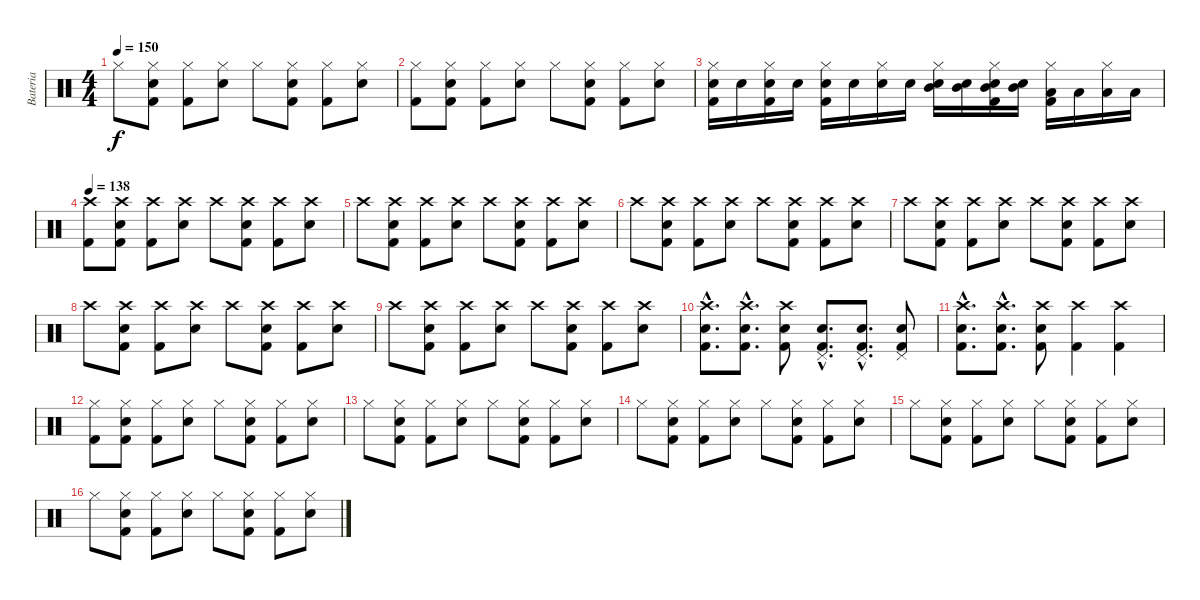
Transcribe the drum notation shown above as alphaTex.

\track ("Bateria" "Bateria") {instrument percussion}
\staff {score}
\articulation defaults
\ts (4 4)
\tempo 150
\clef neutral
\ks c "Hi-Hat (closed)".8{dy f}
("Electric Snare (hit)" "Hi-Hat (closed)" "Kick (hit) 2").8 ("Hi-Hat (closed)" "Kick (hit) 2").8 ("Electric Snare (hit)" "Hi-Hat (closed)").8 "Hi-Hat (closed)".8 ("Electric Snare (hit)" "Hi-Hat (closed)" "Kick (hit) 2").8 ("Hi-Hat (closed)" "Kick (hit) 2").8 ("Electric Snare (hit)" "Hi-Hat (closed)").8 |
("Hi-Hat (closed)" "Kick (hit) 2").8 ("Electric Snare (hit)" "Hi-Hat (closed)" "Kick (hit) 2").8 ("Hi-Hat (closed)" "Kick (hit) 2").8 ("Electric Snare (hit)" "Hi-Hat (closed)").8 "Hi-Hat (closed)".8 ("Electric Snare (hit)" "Hi-Hat (closed)" "Kick (hit) 2").8 ("Hi-Hat (closed)" "Kick (hit) 2").8 ("Electric Snare (hit)" "Hi-Hat (closed)").8 |
("Electric Snare (hit)" "Hi-Hat (closed)" "Kick (hit) 2").16 "Electric Snare (hit)".16 ("Electric Snare (hit)" "Hi-Hat (closed)" "Kick (hit) 2").16 "Electric Snare (hit)".16 ("Electric Snare (hit)" "Hi-Hat (closed)" "Kick (hit) 2").16 "Electric Snare (hit)".16 ("Electric Snare (hit)" "Hi-Hat (closed)").16 "Electric Snare (hit)".16 ("Electric Snare (hit)" "Hi-Hat (closed)" "Mid Tom (hit)").16 ("Electric Snare (hit)" "Mid Tom (hit)").16 ("Electric Snare (hit)" "Hi-Hat (closed)" "Mid Tom (hit)" "Kick (hit) 2").16 ("Electric Snare (hit)" "Mid Tom (hit)").16 ("Low Tom (hit)" "Hi-Hat (closed)" "Kick (hit) 2").16 "Low Tom (hit)".16 ("Low Tom (hit)" "Hi-Hat (closed)").16 "Low Tom (hit)".16 |
\tempo 138
("Crash high (hit)" "Kick (hit) 2").8{volume 16} ("Electric Snare (hit)" "Crash high (hit)" "Kick (hit) 2").8 ("Crash high (hit)" "Kick (hit) 2").8 ("Electric Snare (hit)" "Crash high (hit)").8 "Crash high (hit)".8 ("Electric Snare (hit)" "Crash high (hit)" "Kick (hit) 2").8 ("Crash high (hit)" "Kick (hit) 2").8 ("Electric Snare (hit)" "Crash high (hit)").8 |
"Crash high (hit)".8 ("Electric Snare (hit)" "Crash high (hit)" "Kick (hit) 2").8 ("Crash high (hit)" "Kick (hit) 2").8 ("Electric Snare (hit)" "Crash high (hit)").8 "Crash high (hit)".8 ("Electric Snare (hit)" "Crash high (hit)" "Kick (hit) 2").8 ("Crash high (hit)" "Kick (hit) 2").8 ("Electric Snare (hit)" "Crash high (hit)").8 |
"Crash high (hit)".8 ("Electric Snare (hit)" "Crash high (hit)" "Kick (hit) 2").8 ("Crash high (hit)" "Kick (hit) 2").8 ("Electric Snare (hit)" "Crash high (hit)").8 "Crash high (hit)".8 ("Electric Snare (hit)" "Crash high (hit)" "Kick (hit) 2").8 ("Crash high (hit)" "Kick (hit) 2").8 ("Electric Snare (hit)" "Crash high (hit)").8 |
"Crash high (hit)".8 ("Electric Snare (hit)" "Crash high (hit)" "Kick (hit) 2").8 ("Crash high (hit)" "Kick (hit) 2").8 ("Electric Snare (hit)" "Crash high (hit)").8 "Crash high (hit)".8 ("Electric Snare (hit)" "Crash high (hit)" "Kick (hit) 2").8 ("Crash high (hit)" "Kick (hit) 2").8 ("Electric Snare (hit)" "Crash high (hit)").8 |
"Crash high (hit)".8 ("Electric Snare (hit)" "Crash high (hit)" "Kick (hit) 2").8 ("Crash high (hit)" "Kick (hit) 2").8 ("Electric Snare (hit)" "Crash high (hit)").8 "Crash high (hit)".8 ("Electric Snare (hit)" "Crash high (hit)" "Kick (hit) 2").8 ("Crash high (hit)" "Kick (hit) 2").8 ("Electric Snare (hit)" "Crash high (hit)").8 |
"Crash high (hit)".8 ("Electric Snare (hit)" "Crash high (hit)" "Kick (hit) 2").8 ("Crash high (hit)" "Kick (hit) 2").8 ("Electric Snare (hit)" "Crash high (hit)").8 "Crash high (hit)".8 ("Electric Snare (hit)" "Crash high (hit)" "Kick (hit) 2").8 ("Crash high (hit)" "Kick (hit) 2").8 ("Electric Snare (hit)" "Crash high (hit)").8 |
("Electric Snare (hit)"{hac} "Crash high (hit)"{hac} "Kick (hit) 2"{hac}).8{d} ("Electric Snare (hit)"{hac} "Crash high (hit)"{hac} "Kick (hit) 2"{hac}).8{d} ("Electric Snare (hit)" "Crash high (hit)" "Kick (hit) 2").8 ("Electric Snare (hit)"{hac} "Pedal Hi-Hat (hit)"{hac} "Kick (hit) 2"{hac}).8{d} ("Electric Snare (hit)"{hac} "Pedal Hi-Hat (hit)"{hac} "Kick (hit) 2"{hac}).8{d} ("Electric Snare (hit)" "Pedal Hi-Hat (hit)" "Kick (hit) 2").8 |
("Electric Snare (hit)"{hac} "Crash high (hit)"{hac} "Kick (hit) 2"{hac}).8{d} ("Electric Snare (hit)"{hac} "Crash high (hit)"{hac} "Kick (hit) 2"{hac}).8{d} ("Electric Snare (hit)" "Crash high (hit)" "Kick (hit) 2").8 ("Crash high (hit)" "Kick (hit) 2").4 ("Crash high (hit)" "Kick (hit) 2").4 |
("Hi-Hat (closed)" "Kick (hit) 2").8 ("Electric Snare (hit)" "Hi-Hat (closed)" "Kick (hit) 2").8 ("Hi-Hat (closed)" "Kick (hit) 2").8 ("Electric Snare (hit)" "Hi-Hat (closed)").8 "Hi-Hat (closed)".8 ("Electric Snare (hit)" "Hi-Hat (closed)" "Kick (hit) 2").8 ("Hi-Hat (closed)" "Kick (hit) 2").8 ("Electric Snare (hit)" "Hi-Hat (closed)").8 |
"Hi-Hat (closed)".8 ("Electric Snare (hit)" "Hi-Hat (closed)" "Kick (hit) 2").8 ("Hi-Hat (closed)" "Kick (hit) 2").8 ("Electric Snare (hit)" "Hi-Hat (closed)").8 "Hi-Hat (closed)".8 ("Electric Snare (hit)" "Hi-Hat (closed)" "Kick (hit) 2").8 ("Hi-Hat (closed)" "Kick (hit) 2").8 ("Electric Snare (hit)" "Hi-Hat (closed)").8 |
"Hi-Hat (closed)".8 ("Electric Snare (hit)" "Hi-Hat (closed)" "Kick (hit) 2").8 ("Hi-Hat (closed)" "Kick (hit) 2").8 ("Electric Snare (hit)" "Hi-Hat (closed)").8 "Hi-Hat (closed)".8 ("Electric Snare (hit)" "Hi-Hat (closed)" "Kick (hit) 2").8 ("Hi-Hat (closed)" "Kick (hit) 2").8 ("Electric Snare (hit)" "Hi-Hat (closed)").8 |
"Hi-Hat (closed)".8 ("Electric Snare (hit)" "Hi-Hat (closed)" "Kick (hit) 2").8 ("Hi-Hat (closed)" "Kick (hit) 2").8 ("Electric Snare (hit)" "Hi-Hat (closed)").8 "Hi-Hat (closed)".8 ("Electric Snare (hit)" "Hi-Hat (closed)" "Kick (hit) 2").8 ("Hi-Hat (closed)" "Kick (hit) 2").8 ("Electric Snare (hit)" "Hi-Hat (closed)").8 |
"Hi-Hat (closed)".8 ("Electric Snare (hit)" "Hi-Hat (closed)" "Kick (hit) 2").8 ("Hi-Hat (closed)" "Kick (hit) 2").8 ("Electric Snare (hit)" "Hi-Hat (closed)").8 "Hi-Hat (closed)".8 ("Electric Snare (hit)" "Hi-Hat (closed)" "Kick (hit) 2").8 ("Hi-Hat (closed)" "Kick (hit) 2").8 ("Electric Snare (hit)" "Hi-Hat (closed)").8
